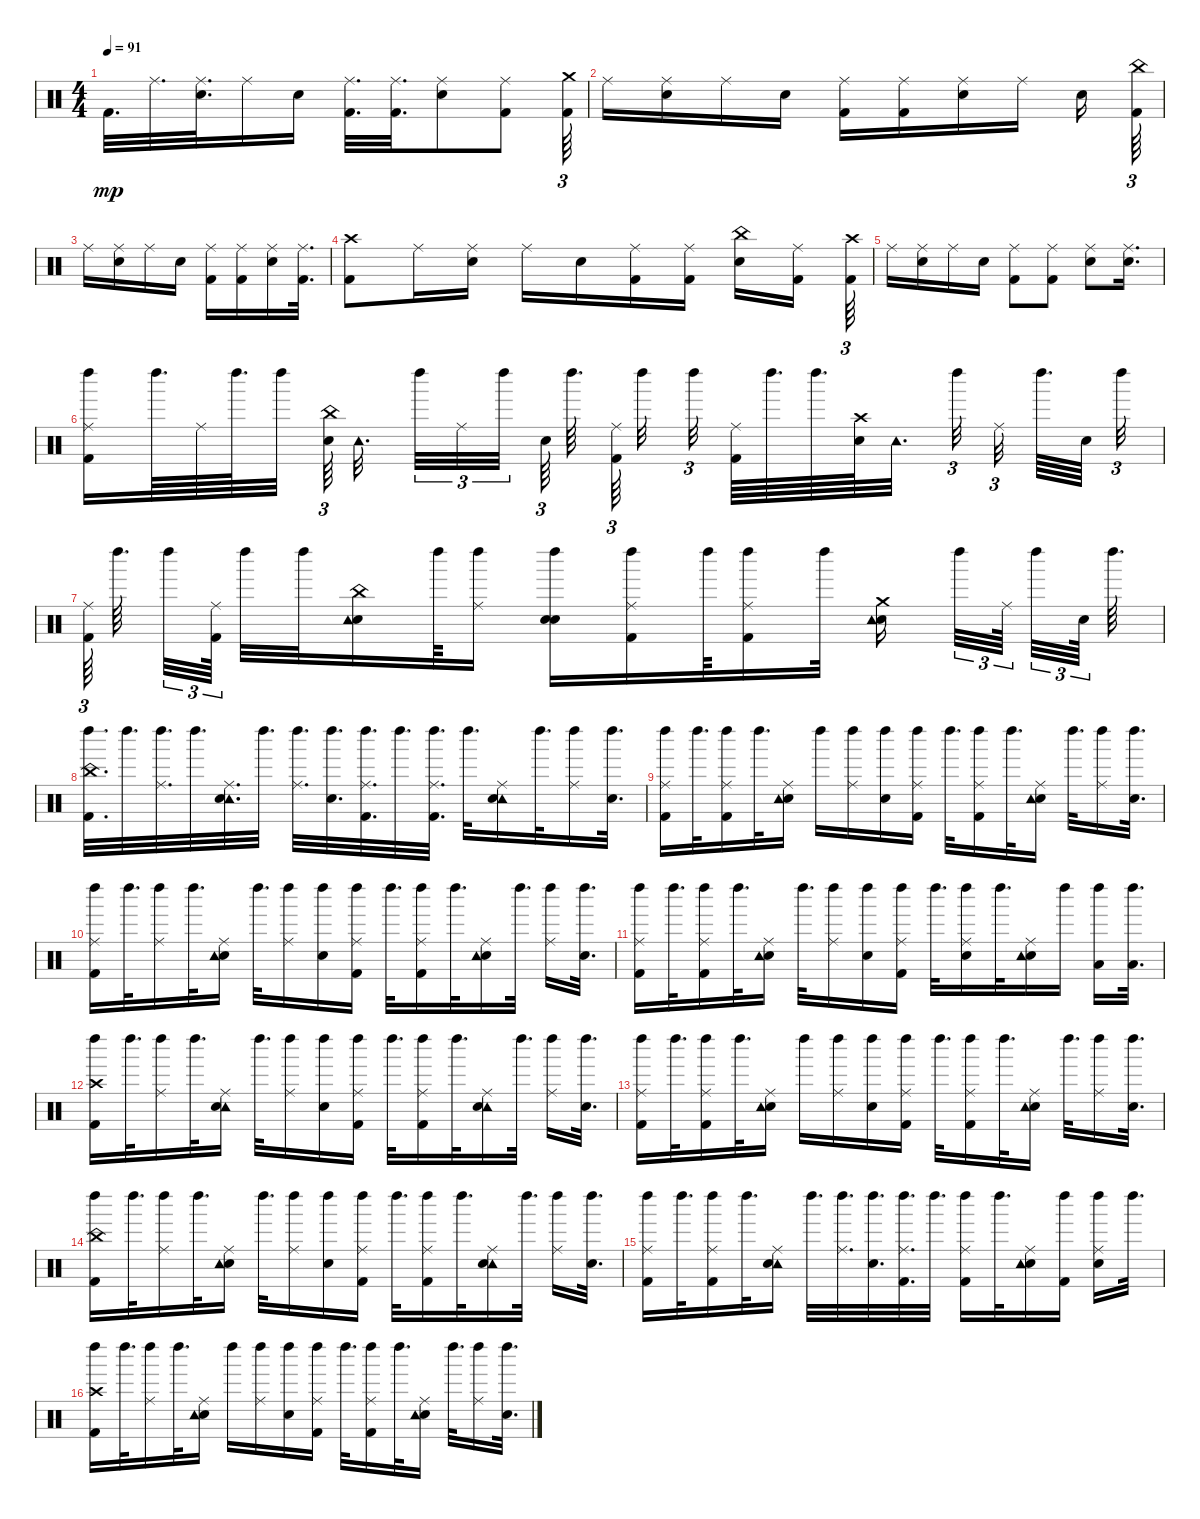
\track "" {instrument percussion}
\staff {score}
\articulation defaults
\ts (4 4)
\tempo 91
\clef neutral
\ks c "Kick (hit) 2".32{d dy mp} "Ride (middle)".32{d}
("Electric Snare (hit)" "Ride (middle)").32{d} "Ride (middle)".16 "Electric Snare (hit)".16 ("Ride (middle)" "Kick (hit) 2").32{d} ("Ride (middle)" "Kick (hit) 2").32{d} ("Electric Snare (hit)" "Ride (middle)").8 ("Ride (middle)" "Kick (hit) 2").8 ("Kick (hit) 2" "Crash medium (hit)").64{tu (3 2)} |
"Ride (middle)".16 ("Ride (middle)" "Electric Snare (hit)").16 "Ride (middle)".16 "Electric Snare (hit)".16 ("Kick (hit) 2" "Ride (middle)").16 ("Ride (middle)" "Kick (hit) 2").16 ("Ride (middle)" "Electric Snare (hit)").16 "Ride (middle)".16 "Electric Snare (hit)".16 ("Kick (hit) 2" "China (hit)").64{tu (3 2)} |
"Ride (middle)".16 ("Electric Snare (hit)" "Ride (middle)").16 "Ride (middle)".16 "Electric Snare (hit)".16 ("Ride (middle)" "Kick (hit) 2").16 ("Ride (middle)" "Kick (hit) 2").16 ("Electric Snare (hit)" "Ride (middle)").16 ("Ride (middle)" "Kick (hit) 2").32{d} |
("Kick (hit) 2" "Crash high (hit)").8 "Ride (middle)".16 ("Electric Snare (hit)" "Ride (middle)").16 "Ride (middle)".16 "Electric Snare (hit)".16 ("Kick (hit) 2" "Ride (middle)").16 ("Kick (hit) 2" "Ride (middle)").16 ("Electric Snare (hit)" "China (hit)").16 ("Kick (hit) 2" "Ride (middle)").16 ("Kick (hit) 2" "Crash high (hit)").64{tu (3 2)} |
"Ride (middle)".16 ("Electric Snare (hit)" "Ride (middle)").16 "Ride (middle)".16 "Electric Snare (hit)".16 ("Kick (hit) 2" "Ride (middle)").8 ("Kick (hit) 2" "Ride (middle)").8 ("Electric Snare (hit)" "Ride (middle)").8 ("Electric Snare (hit)" "Ride (middle)").16{d} |
("Kick (hit) 2" "Ride (middle)" "Left Maraca (hit)").16 "Left Maraca (hit)".64{d} "Ride (middle)".64 "Left Maraca (hit)".64{d} "Left Maraca (hit)".32 ("China (hit)" "Electric Snare (hit)").64{tu (3 2)} "Tambourine (hit)".32{d} "Left Maraca (hit)".32{tu (3 2)} "Ride (middle)".32{tu (3 2)} "Left Maraca (hit)".32{tu (3 2)} "Electric Snare (hit)".64{tu (3 2)} "Left Maraca (hit)".64{d} ("Ride (middle)" "Kick (hit) 2").64{tu (3 2)} "Left Maraca (hit)".32 "Left Maraca (hit)".32{tu (3 2)} ("Kick (hit) 2" "Ride (middle)").64 "Left Maraca (hit)".64{d} "Left Maraca (hit)".64{d} ("Crash high (hit)" "Electric Snare (hit)").64 "Tambourine (hit)".32{d} "Left Maraca (hit)".32{tu (3 2)} "Ride (middle)".32{tu (3 2)} "Left Maraca (hit)".64{d} "Electric Snare (hit)".64 "Left Maraca (hit)".32{tu (3 2)} |
("Ride (middle)" "Kick (hit) 2").64{tu (3 2)} "Left Maraca (hit)".64{d} "Left Maraca (hit)".32{tu (3 2)} ("Ride (middle)" "Kick (hit) 2").64{tu (3 2)} "Left Maraca (hit)".32 "Left Maraca (hit)".32 ("China (hit)" "Electric Snare (hit)" "Tambourine (hit)").16 "Left Maraca (hit)".64 ("Ride (middle)" "Left Maraca (hit)").16 ("Electric Snare (hit)" "Snare (hit) 2" "Left Maraca (hit)").16 ("Kick (hit) 2" "Ride (middle)" "Left Maraca (hit)").16 "Left Maraca (hit)".64 ("Kick (hit) 2" "Ride (middle)" "Left Maraca (hit)").16 "Left Maraca (hit)".32 ("Crash medium (hit)" "Electric Snare (hit)" "Tambourine (hit)").16 "Left Maraca (hit)".32{tu (3 2)} "Ride (middle)".64{tu (3 2)} "Left Maraca (hit)".32{tu (3 2)} "Electric Snare (hit)".64{tu (3 2)} "Left Maraca (hit)".64{d} |
("Left Maraca (hit)" "Kick (hit) 2" "China (hit)").32{d} "Left Maraca (hit)".32{d} ("Left Maraca (hit)" "Ride (middle)").32{d} "Left Maraca (hit)".32{d} ("Tambourine (hit)" "Electric Snare (hit)" "Ride (middle)").32{d} "Left Maraca (hit)".32{d} ("Left Maraca (hit)" "Ride (middle)").32{d} ("Left Maraca (hit)" "Electric Snare (hit)").32{d} ("Left Maraca (hit)" "Kick (hit) 2" "Ride (middle)").32{d} "Left Maraca (hit)".32{d} ("Left Maraca (hit)" "Ride (middle)" "Kick (hit) 2").32{d} "Left Maraca (hit)".32{d} ("Tambourine (hit)" "Ride (middle)" "Electric Snare (hit)").16 "Left Maraca (hit)".32{d} ("Ride (middle)" "Left Maraca (hit)").16 ("Left Maraca (hit)" "Electric Snare (hit)").32{d} |
("Ride (middle)" "Left Maraca (hit)" "Kick (hit) 2").16 "Left Maraca (hit)".32{d} ("Kick (hit) 2" "Ride (middle)" "Left Maraca (hit)").16 "Left Maraca (hit)".32{d} ("Electric Snare (hit)" "Ride (middle)" "Tambourine (hit)").16 "Left Maraca (hit)".16 ("Ride (middle)" "Left Maraca (hit)").16 ("Electric Snare (hit)" "Left Maraca (hit)").16 ("Ride (middle)" "Kick (hit) 2" "Left Maraca (hit)").16 "Left Maraca (hit)".32{d} ("Kick (hit) 2" "Ride (middle)" "Left Maraca (hit)").16 "Left Maraca (hit)".32{d} ("Electric Snare (hit)" "Ride (middle)" "Tambourine (hit)").16 "Left Maraca (hit)".32{d} ("Ride (middle)" "Left Maraca (hit)").16 ("Electric Snare (hit)" "Left Maraca (hit)").32{d} |
("Kick (hit) 2" "Ride (middle)" "Left Maraca (hit)").16 "Left Maraca (hit)".32{d} ("Ride (middle)" "Left Maraca (hit)").16 "Left Maraca (hit)".32{d} ("Electric Snare (hit)" "Ride (middle)" "Tambourine (hit)").16 "Left Maraca (hit)".32{d} ("Ride (middle)" "Left Maraca (hit)").16 ("Electric Snare (hit)" "Left Maraca (hit)").16 ("Ride (middle)" "Kick (hit) 2" "Left Maraca (hit)").16 "Left Maraca (hit)".32{d} ("Ride (middle)" "Kick (hit) 2" "Left Maraca (hit)").16 "Left Maraca (hit)".32{d} ("Ride (middle)" "Electric Snare (hit)" "Tambourine (hit)").16 "Left Maraca (hit)".32{d} ("Ride (middle)" "Left Maraca (hit)").16 ("Left Maraca (hit)" "Electric Snare (hit)").32{d} |
("Left Maraca (hit)" "Ride (middle)" "Kick (hit) 2").16 "Left Maraca (hit)".32{d} ("Kick (hit) 2" "Ride (middle)" "Left Maraca (hit)").16 "Left Maraca (hit)".32{d} ("Electric Snare (hit)" "Ride (middle)" "Tambourine (hit)").16 "Left Maraca (hit)".32{d} ("Ride (middle)" "Left Maraca (hit)").16 ("Electric Snare (hit)" "Left Maraca (hit)").16 ("Kick (hit) 2" "Ride (middle)" "Left Maraca (hit)").16 "Left Maraca (hit)".32{d} ("Electric Snare (hit)" "Ride (middle)" "Left Maraca (hit)").16 "Left Maraca (hit)".32{d} ("Ride (middle)" "Electric Snare (hit)" "Tambourine (hit)").16 "Left Maraca (hit)".16 ("Left Maraca (hit)" "Low Tom (hit)").16 ("Low Tom (hit)" "Left Maraca (hit)").32{d} |
("Kick (hit) 2" "Crash high (hit)" "Left Maraca (hit)").16 "Left Maraca (hit)".32{d} ("Ride (middle)" "Left Maraca (hit)").16 "Left Maraca (hit)".32{d} ("Tambourine (hit)" "Electric Snare (hit)" "Ride (middle)").16 "Left Maraca (hit)".32{d} ("Ride (middle)" "Left Maraca (hit)").16 ("Electric Snare (hit)" "Left Maraca (hit)").16 ("Ride (middle)" "Kick (hit) 2" "Left Maraca (hit)").16 "Left Maraca (hit)".32{d} ("Kick (hit) 2" "Ride (middle)" "Left Maraca (hit)").16 "Left Maraca (hit)".32{d} ("Tambourine (hit)" "Ride (middle)" "Electric Snare (hit)").16 "Left Maraca (hit)".32{d} ("Ride (middle)" "Left Maraca (hit)").16 ("Electric Snare (hit)" "Left Maraca (hit)").32{d} |
("Ride (middle)" "Kick (hit) 2" "Left Maraca (hit)").16 "Left Maraca (hit)".32{d} ("Kick (hit) 2" "Ride (middle)" "Left Maraca (hit)").16 "Left Maraca (hit)".32{d} ("Ride (middle)" "Electric Snare (hit)" "Tambourine (hit)").16 "Left Maraca (hit)".16 ("Left Maraca (hit)" "Ride (middle)").16 ("Left Maraca (hit)" "Electric Snare (hit)").16 ("Kick (hit) 2" "Left Maraca (hit)" "Ride (middle)").16 "Left Maraca (hit)".32{d} ("Kick (hit) 2" "Left Maraca (hit)" "Ride (middle)").16 "Left Maraca (hit)".32{d} ("Electric Snare (hit)" "Tambourine (hit)" "Ride (middle)").16 "Left Maraca (hit)".32{d} ("Left Maraca (hit)" "Ride (middle)").16 ("Left Maraca (hit)" "Electric Snare (hit)").32{d} |
("China (hit)" "Kick (hit) 2" "Left Maraca (hit)").16 "Left Maraca (hit)".32{d} ("Ride (middle)" "Left Maraca (hit)").16 "Left Maraca (hit)".32{d} ("Electric Snare (hit)" "Ride (middle)" "Tambourine (hit)").16 "Left Maraca (hit)".32{d} ("Ride (middle)" "Left Maraca (hit)").16 ("Left Maraca (hit)" "Electric Snare (hit)").16 ("Kick (hit) 2" "Ride (middle)" "Left Maraca (hit)").16 "Left Maraca (hit)".32{d} ("Ride (middle)" "Kick (hit) 2" "Left Maraca (hit)").16 "Left Maraca (hit)".32{d} ("Tambourine (hit)" "Electric Snare (hit)" "Ride (middle)").16 "Left Maraca (hit)".32{d} ("Ride (middle)" "Left Maraca (hit)").16 ("Left Maraca (hit)" "Electric Snare (hit)").32{d} |
("Kick (hit) 2" "Ride (middle)" "Left Maraca (hit)").16 "Left Maraca (hit)".32{d} ("Ride (middle)" "Left Maraca (hit)" "Kick (hit) 2").16 "Left Maraca (hit)".32{d} ("Tambourine (hit)" "Ride (middle)" "Electric Snare (hit)").16 "Left Maraca (hit)".32{d} ("Left Maraca (hit)" "Ride (middle)").32{d} ("Left Maraca (hit)" "Electric Snare (hit)").32{d} ("Left Maraca (hit)" "Ride (middle)" "Kick (hit) 2").32{d} "Left Maraca (hit)".32{d} ("Kick (hit) 2" "Left Maraca (hit)" "Ride (middle)").16 "Left Maraca (hit)".32{d} ("Electric Snare (hit)" "Ride (middle)" "Tambourine (hit)").16 ("Left Maraca (hit)" "Kick (hit) 2").16 ("Left Maraca (hit)" "Electric Snare (hit)" "Ride (middle)").16 "Left Maraca (hit)".32{d} |
("Kick (hit) 2" "Crash high (hit)" "Left Maraca (hit)").16 "Left Maraca (hit)".32{d} ("Ride (middle)" "Left Maraca (hit)").16 "Left Maraca (hit)".32{d} ("Ride (middle)" "Electric Snare (hit)" "Tambourine (hit)").16 "Left Maraca (hit)".16 ("Ride (middle)" "Left Maraca (hit)").16 ("Left Maraca (hit)" "Electric Snare (hit)").16 ("Left Maraca (hit)" "Ride (middle)" "Kick (hit) 2").16 "Left Maraca (hit)".32{d} ("Kick (hit) 2" "Ride (middle)" "Left Maraca (hit)").16 "Left Maraca (hit)".32{d} ("Ride (middle)" "Electric Snare (hit)" "Tambourine (hit)").16 "Left Maraca (hit)".32{d} ("Ride (middle)" "Left Maraca (hit)").16 ("Electric Snare (hit)" "Left Maraca (hit)").32{d}
